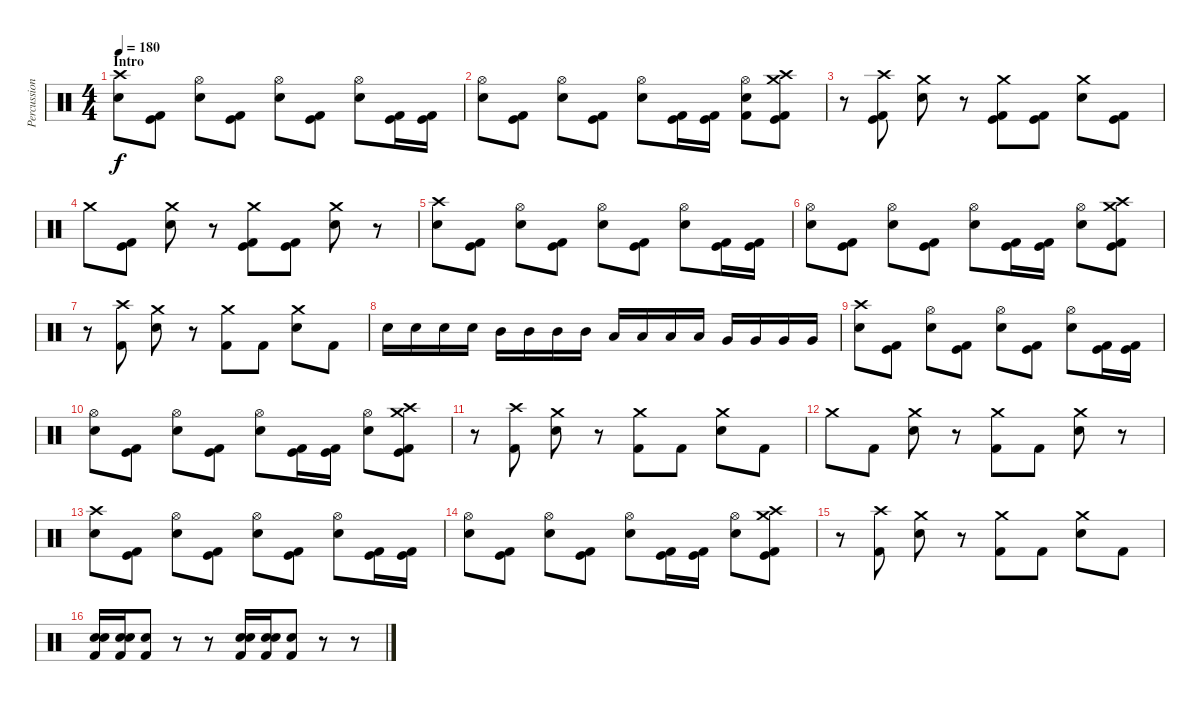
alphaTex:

\track ("Percussion" "Percussion") {instrument percussion}
\staff {score}
\articulation defaults
\ts (4 4)
\section ("" "Intro")
\tempo 180
\clef neutral
\ks c
("Crash high (hit)" "Electric Snare (hit)").8{dy f} ("Kick (hit)" "Kick (hit) 2").8 ("Hi-Hat (open)" "Electric Snare (hit)").8 ("Kick (hit)" "Kick (hit) 2").8 ("Hi-Hat (open)" "Electric Snare (hit)").8 ("Kick (hit)" "Kick (hit) 2").8 ("Hi-Hat (open)" "Electric Snare (hit)").8 ("Kick (hit)" "Kick (hit) 2").16 ("Kick (hit)" "Kick (hit) 2").16 |
("Hi-Hat (open)" "Electric Snare (hit)").8 ("Kick (hit)" "Kick (hit) 2").8 ("Hi-Hat (open)" "Electric Snare (hit)").8 ("Kick (hit)" "Kick (hit) 2").8 ("Hi-Hat (open)" "Electric Snare (hit)").8 ("Kick (hit)" "Kick (hit) 2").16 ("Kick (hit)" "Kick (hit) 2").16 ("Hi-Hat (open)" "Electric Snare (hit)" "Kick (hit) 2").8 ("Crash medium (hit)" "Crash high (hit)" "Kick (hit)" "Kick (hit) 2").8 |
r.8 ("Crash high (hit)" "Kick (hit)" "Kick (hit) 2").8 ("Crash medium (hit)" "Electric Snare (hit)").8 r.8 ("Crash medium (hit)" "Kick (hit)" "Kick (hit) 2").8 ("Kick (hit)" "Kick (hit) 2").8 ("Crash medium (hit)" "Electric Snare (hit)").8 ("Kick (hit)" "Kick (hit) 2").8 |
"Crash medium (hit)".8 ("Kick (hit)" "Kick (hit) 2").8 ("Crash medium (hit)" "Electric Snare (hit)").8 r.8 ("Crash medium (hit)" "Kick (hit)" "Kick (hit) 2").8 ("Kick (hit)" "Kick (hit) 2").8 ("Crash medium (hit)" "Electric Snare (hit)").8 r.8 |
("Crash high (hit)" "Electric Snare (hit)").8 ("Kick (hit)" "Kick (hit) 2").8 ("Hi-Hat (open)" "Electric Snare (hit)").8 ("Kick (hit)" "Kick (hit) 2").8 ("Hi-Hat (open)" "Electric Snare (hit)").8 ("Kick (hit)" "Kick (hit) 2").8 ("Hi-Hat (open)" "Electric Snare (hit)").8 ("Kick (hit)" "Kick (hit) 2").16 ("Kick (hit)" "Kick (hit) 2").16 |
("Hi-Hat (open)" "Electric Snare (hit)").8 ("Kick (hit)" "Kick (hit) 2").8 ("Hi-Hat (open)" "Electric Snare (hit)").8 ("Kick (hit)" "Kick (hit) 2").8 ("Hi-Hat (open)" "Electric Snare (hit)").8 ("Kick (hit)" "Kick (hit) 2").16 ("Kick (hit)" "Kick (hit) 2").16 ("Hi-Hat (open)" "Electric Snare (hit)").8 ("Crash medium (hit)" "Crash high (hit)" "Kick (hit)" "Kick (hit) 2").8 |
r.8 ("Crash high (hit)" "Kick (hit) 2").8 ("Crash medium (hit)" "Electric Snare (hit)").8 r.8 ("Crash medium (hit)" "Kick (hit) 2").8 "Kick (hit) 2".8 ("Crash medium (hit)" "Electric Snare (hit)").8 "Kick (hit) 2".8 |
"Snare (hit) 2".16 "Snare (hit) 2".16 "Snare (hit) 2".16 "Snare (hit) 2".16 "Mid Tom (hit)".16 "Mid Tom (hit)".16 "Mid Tom (hit)".16 "Mid Tom (hit)".16 "Low Floor Tom (hit)".16 "Low Floor Tom (hit)".16 "Low Floor Tom (hit)".16 "Low Floor Tom (hit)".16 "Very Low Tom (hit)".16 "Very Low Tom (hit)".16 "Very Low Tom (hit)".16 "Very Low Tom (hit)".16 |
("Crash high (hit)" "Electric Snare (hit)").8 ("Kick (hit)" "Kick (hit) 2").8 ("Hi-Hat (open)" "Electric Snare (hit)").8 ("Kick (hit)" "Kick (hit) 2").8 ("Hi-Hat (open)" "Electric Snare (hit)").8 ("Kick (hit)" "Kick (hit) 2").8 ("Hi-Hat (open)" "Electric Snare (hit)").8 ("Kick (hit)" "Kick (hit) 2").16 ("Kick (hit)" "Kick (hit) 2").16 |
("Hi-Hat (open)" "Electric Snare (hit)").8 ("Kick (hit)" "Kick (hit) 2").8 ("Hi-Hat (open)" "Electric Snare (hit)").8 ("Kick (hit)" "Kick (hit) 2").8 ("Hi-Hat (open)" "Electric Snare (hit)").8 ("Kick (hit)" "Kick (hit) 2").16 ("Kick (hit)" "Kick (hit) 2").16 ("Hi-Hat (open)" "Electric Snare (hit)").8 ("Crash medium (hit)" "Crash high (hit)" "Kick (hit)" "Kick (hit) 2").8 |
r.8 ("Crash high (hit)" "Kick (hit) 2").8 ("Crash medium (hit)" "Electric Snare (hit)").8 r.8 ("Crash medium (hit)" "Kick (hit) 2").8 "Kick (hit) 2".8 ("Crash medium (hit)" "Electric Snare (hit)").8 "Kick (hit) 2".8 |
"Crash medium (hit)".8 "Kick (hit) 2".8 ("Crash medium (hit)" "Electric Snare (hit)").8 r.8 ("Crash medium (hit)" "Kick (hit) 2").8 "Kick (hit) 2".8 ("Crash medium (hit)" "Electric Snare (hit)").8 r.8 |
("Crash high (hit)" "Electric Snare (hit)").8 ("Kick (hit)" "Kick (hit) 2").8 ("Hi-Hat (open)" "Electric Snare (hit)").8 ("Kick (hit)" "Kick (hit) 2").8 ("Hi-Hat (open)" "Electric Snare (hit)").8 ("Kick (hit)" "Kick (hit) 2").8 ("Hi-Hat (open)" "Electric Snare (hit)").8 ("Kick (hit)" "Kick (hit) 2").16 ("Kick (hit)" "Kick (hit) 2").16 |
("Hi-Hat (open)" "Electric Snare (hit)").8 ("Kick (hit)" "Kick (hit) 2").8 ("Hi-Hat (open)" "Electric Snare (hit)").8 ("Kick (hit)" "Kick (hit) 2").8 ("Hi-Hat (open)" "Electric Snare (hit)").8 ("Kick (hit)" "Kick (hit) 2").16 ("Kick (hit)" "Kick (hit) 2").16 ("Hi-Hat (open)" "Electric Snare (hit)").8 ("Crash medium (hit)" "Crash high (hit)" "Kick (hit)" "Kick (hit) 2").8 |
r.8 ("Crash high (hit)" "Kick (hit) 2").8 ("Crash medium (hit)" "Electric Snare (hit)").8 r.8 ("Crash medium (hit)" "Kick (hit) 2").8 "Kick (hit) 2".8 ("Crash medium (hit)" "Electric Snare (hit)").8 "Kick (hit) 2".8 |
("Electric Snare (hit)" "Electric Snare (hit)" "Kick (hit) 2").16 ("Electric Snare (hit)" "Electric Snare (hit)" "Kick (hit) 2").16 ("Electric Snare (hit)" "Kick (hit) 2").8 r.8 r.8 ("Electric Snare (hit)" "Electric Snare (hit)" "Kick (hit) 2").16 ("Electric Snare (hit)" "Electric Snare (hit)" "Kick (hit) 2").16 ("Electric Snare (hit)" "Kick (hit) 2").8 r.8 r.8
